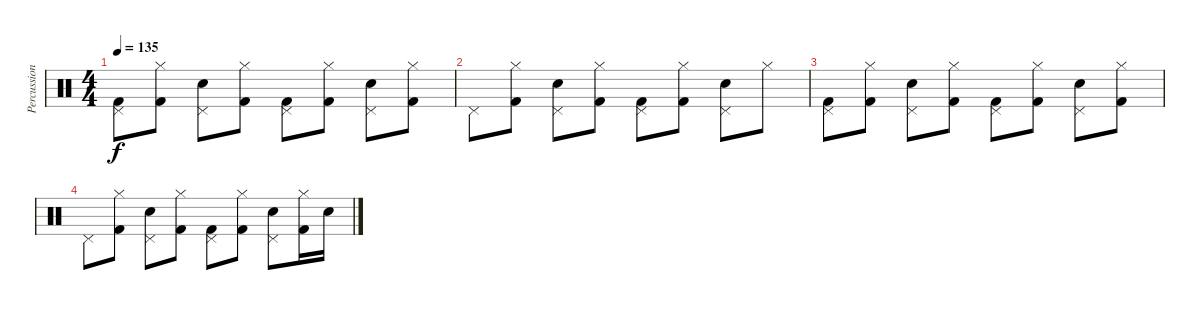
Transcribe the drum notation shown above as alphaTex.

\track ("Percussions" "Percussion") {instrument percussion}
\staff {score}
\articulation defaults
\ts (4 4)
\tempo 135
\clef neutral
\ks c
("Pedal Hi-Hat (hit)" "Kick (hit) 2").8{dy f} ("Hi-Hat (closed)" "Kick (hit) 2").8 ("Pedal Hi-Hat (hit)" "Electric Snare (hit)").8 ("Hi-Hat (closed)" "Kick (hit) 2").8 ("Pedal Hi-Hat (hit)" "Kick (hit) 2").8 ("Hi-Hat (closed)" "Kick (hit) 2").8 ("Pedal Hi-Hat (hit)" "Electric Snare (hit)").8 ("Hi-Hat (closed)" "Kick (hit) 2").8 |
"Pedal Hi-Hat (hit)".8 ("Hi-Hat (closed)" "Kick (hit) 2").8 ("Pedal Hi-Hat (hit)" "Electric Snare (hit)").8 ("Hi-Hat (closed)" "Kick (hit) 2").8 ("Pedal Hi-Hat (hit)" "Kick (hit) 2").8 ("Hi-Hat (closed)" "Kick (hit) 2").8 ("Pedal Hi-Hat (hit)" "Electric Snare (hit)").8 "Hi-Hat (closed)".8 |
("Pedal Hi-Hat (hit)" "Kick (hit) 2").8 ("Hi-Hat (closed)" "Kick (hit) 2").8 ("Pedal Hi-Hat (hit)" "Electric Snare (hit)").8 ("Hi-Hat (closed)" "Kick (hit) 2").8 ("Pedal Hi-Hat (hit)" "Kick (hit) 2").8 ("Hi-Hat (closed)" "Kick (hit) 2").8 ("Pedal Hi-Hat (hit)" "Electric Snare (hit)").8 ("Hi-Hat (closed)" "Kick (hit) 2").8 |
"Pedal Hi-Hat (hit)".8 ("Hi-Hat (closed)" "Kick (hit) 2").8 ("Pedal Hi-Hat (hit)" "Electric Snare (hit)").8 ("Hi-Hat (closed)" "Kick (hit) 2").8 ("Pedal Hi-Hat (hit)" "Kick (hit) 2").8 ("Hi-Hat (closed)" "Kick (hit) 2").8 ("Pedal Hi-Hat (hit)" "Electric Snare (hit)").8 ("Hi-Hat (closed)" "Kick (hit) 2").16 "Electric Snare (hit)".16
